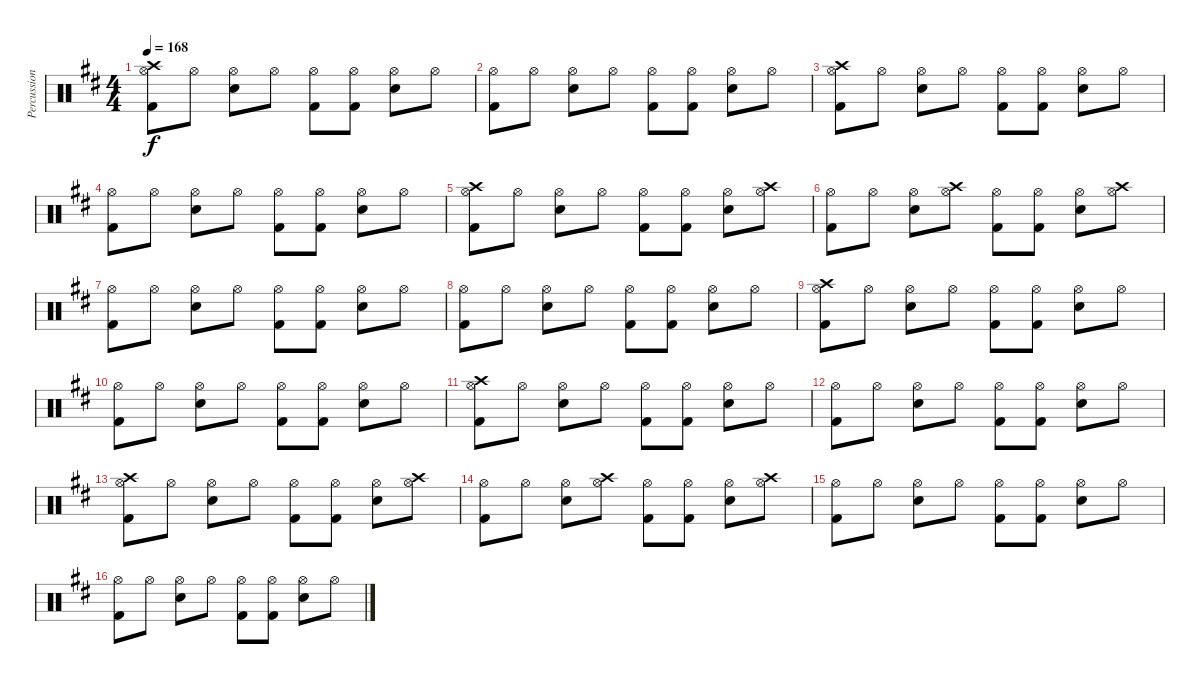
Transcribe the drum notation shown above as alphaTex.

\track ("Percussion" "Percussion") {instrument percussion}
\staff {score}
\articulation defaults
\ts (4 4)
\tempo 168
\clef neutral
\ks d
("Crash high (hit)" "Kick (hit) 2" "Hi-Hat (open)").8{dy f} "Hi-Hat (open)".8 ("Electric Snare (hit)" "Hi-Hat (open)").8 "Hi-Hat (open)".8 ("Kick (hit) 2" "Hi-Hat (open)").8 ("Kick (hit) 2" "Hi-Hat (open)").8 ("Electric Snare (hit)" "Hi-Hat (open)").8 "Hi-Hat (open)".8 |
("Kick (hit) 2" "Hi-Hat (open)").8 "Hi-Hat (open)".8 ("Electric Snare (hit)" "Hi-Hat (open)").8 "Hi-Hat (open)".8 ("Kick (hit) 2" "Hi-Hat (open)").8 ("Kick (hit) 2" "Hi-Hat (open)").8 ("Electric Snare (hit)" "Hi-Hat (open)").8 "Hi-Hat (open)".8 |
("Crash high (hit)" "Kick (hit) 2" "Hi-Hat (open)").8 "Hi-Hat (open)".8 ("Electric Snare (hit)" "Hi-Hat (open)").8 "Hi-Hat (open)".8 ("Kick (hit) 2" "Hi-Hat (open)").8 ("Kick (hit) 2" "Hi-Hat (open)").8 ("Electric Snare (hit)" "Hi-Hat (open)").8 "Hi-Hat (open)".8 |
("Kick (hit) 2" "Hi-Hat (open)").8 "Hi-Hat (open)".8 ("Electric Snare (hit)" "Hi-Hat (open)").8 "Hi-Hat (open)".8 ("Kick (hit) 2" "Hi-Hat (open)").8 ("Kick (hit) 2" "Hi-Hat (open)").8 ("Electric Snare (hit)" "Hi-Hat (open)").8 "Hi-Hat (open)".8 |
("Crash high (hit)" "Kick (hit) 2" "Hi-Hat (open)").8 "Hi-Hat (open)".8 ("Electric Snare (hit)" "Hi-Hat (open)").8 "Hi-Hat (open)".8 ("Kick (hit) 2" "Hi-Hat (open)").8 ("Kick (hit) 2" "Hi-Hat (open)").8 ("Electric Snare (hit)" "Hi-Hat (open)").8 ("Crash high (hit)" "Hi-Hat (open)").8 |
("Kick (hit) 2" "Hi-Hat (open)").8 "Hi-Hat (open)".8 ("Electric Snare (hit)" "Hi-Hat (open)").8 ("Crash high (hit)" "Hi-Hat (open)").8 ("Kick (hit) 2" "Hi-Hat (open)").8 ("Kick (hit) 2" "Hi-Hat (open)").8 ("Electric Snare (hit)" "Hi-Hat (open)").8 ("Crash high (hit)" "Hi-Hat (open)").8 |
("Kick (hit) 2" "Hi-Hat (open)").8 "Hi-Hat (open)".8 ("Electric Snare (hit)" "Hi-Hat (open)").8 "Hi-Hat (open)".8 ("Kick (hit) 2" "Hi-Hat (open)").8 ("Kick (hit) 2" "Hi-Hat (open)").8 ("Electric Snare (hit)" "Hi-Hat (open)").8 "Hi-Hat (open)".8 |
("Kick (hit) 2" "Hi-Hat (open)").8 "Hi-Hat (open)".8 ("Electric Snare (hit)" "Hi-Hat (open)").8 "Hi-Hat (open)".8 ("Kick (hit) 2" "Hi-Hat (open)").8 ("Kick (hit) 2" "Hi-Hat (open)").8 ("Electric Snare (hit)" "Hi-Hat (open)").8 "Hi-Hat (open)".8 |
("Crash high (hit)" "Kick (hit) 2" "Hi-Hat (open)").8 "Hi-Hat (open)".8 ("Electric Snare (hit)" "Hi-Hat (open)").8 "Hi-Hat (open)".8 ("Kick (hit) 2" "Hi-Hat (open)").8 ("Kick (hit) 2" "Hi-Hat (open)").8 ("Electric Snare (hit)" "Hi-Hat (open)").8 "Hi-Hat (open)".8 |
("Kick (hit) 2" "Hi-Hat (open)").8 "Hi-Hat (open)".8 ("Electric Snare (hit)" "Hi-Hat (open)").8 "Hi-Hat (open)".8 ("Kick (hit) 2" "Hi-Hat (open)").8 ("Kick (hit) 2" "Hi-Hat (open)").8 ("Electric Snare (hit)" "Hi-Hat (open)").8 "Hi-Hat (open)".8 |
("Crash high (hit)" "Kick (hit) 2" "Hi-Hat (open)").8 "Hi-Hat (open)".8 ("Electric Snare (hit)" "Hi-Hat (open)").8 "Hi-Hat (open)".8 ("Kick (hit) 2" "Hi-Hat (open)").8 ("Kick (hit) 2" "Hi-Hat (open)").8 ("Electric Snare (hit)" "Hi-Hat (open)").8 "Hi-Hat (open)".8 |
("Kick (hit) 2" "Hi-Hat (open)").8 "Hi-Hat (open)".8 ("Electric Snare (hit)" "Hi-Hat (open)").8 "Hi-Hat (open)".8 ("Kick (hit) 2" "Hi-Hat (open)").8 ("Kick (hit) 2" "Hi-Hat (open)").8 ("Electric Snare (hit)" "Hi-Hat (open)").8 "Hi-Hat (open)".8 |
("Crash high (hit)" "Kick (hit) 2" "Hi-Hat (open)").8 "Hi-Hat (open)".8 ("Electric Snare (hit)" "Hi-Hat (open)").8 "Hi-Hat (open)".8 ("Kick (hit) 2" "Hi-Hat (open)").8 ("Kick (hit) 2" "Hi-Hat (open)").8 ("Electric Snare (hit)" "Hi-Hat (open)").8 ("Crash high (hit)" "Hi-Hat (open)").8 |
("Kick (hit) 2" "Hi-Hat (open)").8 "Hi-Hat (open)".8 ("Electric Snare (hit)" "Hi-Hat (open)").8 ("Crash high (hit)" "Hi-Hat (open)").8 ("Kick (hit) 2" "Hi-Hat (open)").8 ("Kick (hit) 2" "Hi-Hat (open)").8 ("Electric Snare (hit)" "Hi-Hat (open)").8 ("Crash high (hit)" "Hi-Hat (open)").8 |
("Kick (hit) 2" "Hi-Hat (open)").8 "Hi-Hat (open)".8 ("Electric Snare (hit)" "Hi-Hat (open)").8 "Hi-Hat (open)".8 ("Kick (hit) 2" "Hi-Hat (open)").8 ("Kick (hit) 2" "Hi-Hat (open)").8 ("Electric Snare (hit)" "Hi-Hat (open)").8 "Hi-Hat (open)".8 |
("Kick (hit) 2" "Hi-Hat (open)").8 "Hi-Hat (open)".8 ("Electric Snare (hit)" "Hi-Hat (open)").8 "Hi-Hat (open)".8 ("Kick (hit) 2" "Hi-Hat (open)").8 ("Kick (hit) 2" "Hi-Hat (open)").8 ("Electric Snare (hit)" "Hi-Hat (open)").8 "Hi-Hat (open)".8
